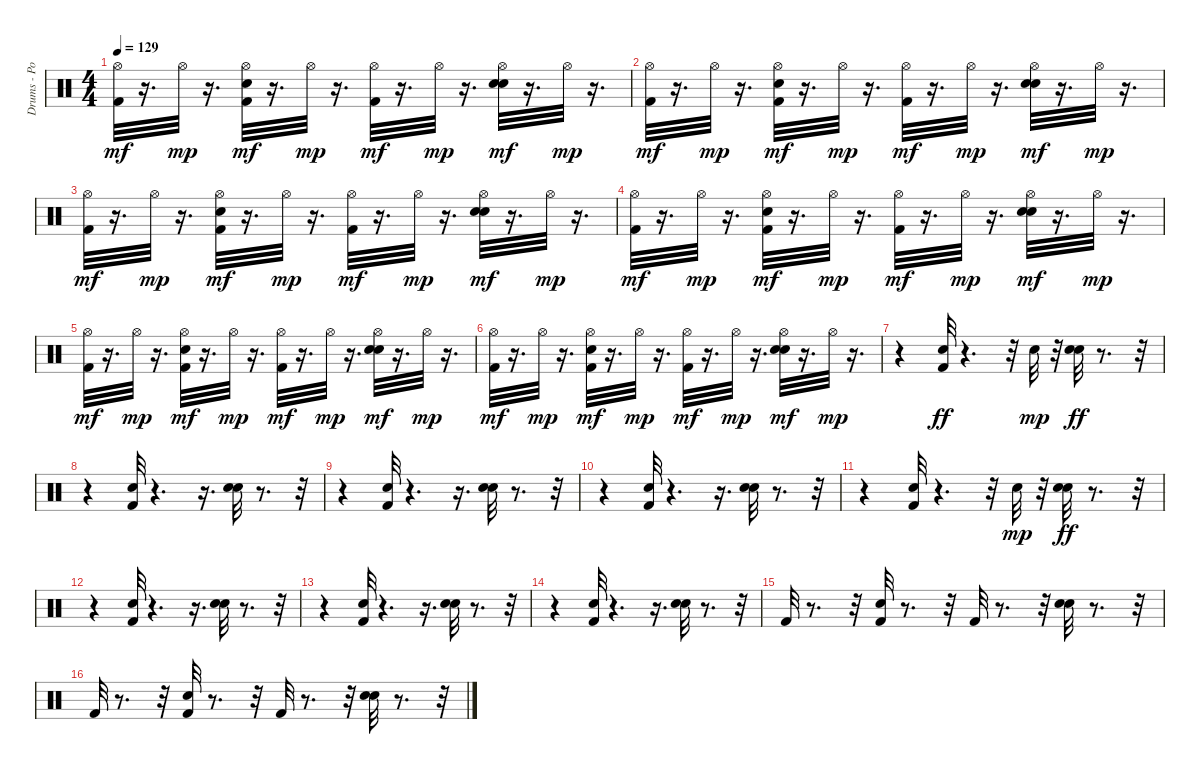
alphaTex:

\track ("Drums - Po" "Drums - Po") {instrument percussion}
\staff {score}
\articulation defaults
\ts (4 4)
\tempo 129
\clef neutral
\ks c
("Kick (hit) 2" "Hi-Hat (open)").32{dy mf} r.16{d} "Hi-Hat (open)".32{dy mp} r.16{d} ("Kick (hit) 2" "Snare (hit) 2" "Hi-Hat (open)").32{dy mf} r.16{d} "Hi-Hat (open)".32{dy mp} r.16{d} ("Kick (hit) 2" "Hi-Hat (open)").32{dy mf} r.16{d} "Hi-Hat (open)".32{dy mp} r.16{d} ("Snare (hit) 2" "Hand Clap (hit)" "Hi-Hat (open)").32{dy mf} r.16{d} "Hi-Hat (open)".32{dy mp} r.16{d} |
("Kick (hit) 2" "Hi-Hat (open)").32{dy mf} r.16{d} "Hi-Hat (open)".32{dy mp} r.16{d} ("Kick (hit) 2" "Snare (hit) 2" "Hi-Hat (open)").32{dy mf} r.16{d} "Hi-Hat (open)".32{dy mp} r.16{d} ("Kick (hit) 2" "Hi-Hat (open)").32{dy mf} r.16{d} "Hi-Hat (open)".32{dy mp} r.16{d} ("Snare (hit) 2" "Hand Clap (hit)" "Hi-Hat (open)").32{dy mf} r.16{d} "Hi-Hat (open)".32{dy mp} r.16{d} |
("Kick (hit) 2" "Hi-Hat (open)").32{dy mf} r.16{d} "Hi-Hat (open)".32{dy mp} r.16{d} ("Kick (hit) 2" "Snare (hit) 2" "Hi-Hat (open)").32{dy mf} r.16{d} "Hi-Hat (open)".32{dy mp} r.16{d} ("Kick (hit) 2" "Hi-Hat (open)").32{dy mf} r.16{d} "Hi-Hat (open)".32{dy mp} r.16{d} ("Snare (hit) 2" "Hand Clap (hit)" "Hi-Hat (open)").32{dy mf} r.16{d} "Hi-Hat (open)".32{dy mp} r.16{d} |
("Kick (hit) 2" "Hi-Hat (open)").32{dy mf} r.16{d} "Hi-Hat (open)".32{dy mp} r.16{d} ("Kick (hit) 2" "Snare (hit) 2" "Hi-Hat (open)").32{dy mf} r.16{d} "Hi-Hat (open)".32{dy mp} r.16{d} ("Kick (hit) 2" "Hi-Hat (open)").32{dy mf} r.16{d} "Hi-Hat (open)".32{dy mp} r.16{d} ("Snare (hit) 2" "Hand Clap (hit)" "Hi-Hat (open)").32{dy mf} r.16{d} "Hi-Hat (open)".32{dy mp} r.16{d} |
("Kick (hit) 2" "Hi-Hat (open)").32{dy mf} r.16{d} "Hi-Hat (open)".32{dy mp} r.16{d} ("Kick (hit) 2" "Snare (hit) 2" "Hi-Hat (open)").32{dy mf} r.16{d} "Hi-Hat (open)".32{dy mp} r.16{d} ("Kick (hit) 2" "Hi-Hat (open)").32{dy mf} r.16{d} "Hi-Hat (open)".32{dy mp} r.16{d} ("Snare (hit) 2" "Hand Clap (hit)" "Hi-Hat (open)").32{dy mf} r.16{d} "Hi-Hat (open)".32{dy mp} r.16{d} |
("Kick (hit) 2" "Hi-Hat (open)").32{dy mf} r.16{d} "Hi-Hat (open)".32{dy mp} r.16{d} ("Kick (hit) 2" "Snare (hit) 2" "Hi-Hat (open)").32{dy mf} r.16{d} "Hi-Hat (open)".32{dy mp} r.16{d} ("Kick (hit) 2" "Hi-Hat (open)").32{dy mf} r.16{d} "Hi-Hat (open)".32{dy mp} r.16{d} ("Snare (hit) 2" "Hand Clap (hit)" "Hi-Hat (open)").32{dy mf} r.16{d} "Hi-Hat (open)".32{dy mp} r.16{d} |
r.4 ("Kick (hit) 2" "Snare (hit) 2").32{dy ff} r.4{d} r.32 "Hand Clap (hit)".32{dy mp} r.32 ("Snare (hit) 2" "Hand Clap (hit)").32{dy ff} r.8{d} r.32 |
r.4 ("Kick (hit) 2" "Snare (hit) 2").32 r.4{d} r.16{d} ("Snare (hit) 2" "Hand Clap (hit)").32 r.8{d} r.32 |
r.4 ("Kick (hit) 2" "Snare (hit) 2").32 r.4{d} r.16{d} ("Snare (hit) 2" "Hand Clap (hit)").32 r.8{d} r.32 |
r.4 ("Kick (hit) 2" "Snare (hit) 2").32 r.4{d} r.16{d} ("Snare (hit) 2" "Hand Clap (hit)").32 r.8{d} r.32 |
r.4 ("Kick (hit) 2" "Snare (hit) 2").32 r.4{d} r.32 "Hand Clap (hit)".32{dy mp} r.32 ("Snare (hit) 2" "Hand Clap (hit)").32{dy ff} r.8{d} r.32 |
r.4 ("Kick (hit) 2" "Snare (hit) 2").32 r.4{d} r.16{d} ("Snare (hit) 2" "Hand Clap (hit)").32 r.8{d} r.32 |
r.4 ("Kick (hit) 2" "Snare (hit) 2").32 r.4{d} r.16{d} ("Snare (hit) 2" "Hand Clap (hit)").32 r.8{d} r.32 |
r.4 ("Kick (hit) 2" "Snare (hit) 2").32 r.4{d} r.16{d} ("Snare (hit) 2" "Hand Clap (hit)").32 r.8{d} r.32 |
"Kick (hit) 2".32 r.8{d} r.32 ("Kick (hit) 2" "Snare (hit) 2").32 r.8{d} r.32 "Kick (hit) 2".32 r.8{d} r.32 ("Snare (hit) 2" "Hand Clap (hit)").32 r.8{d} r.32 |
"Kick (hit) 2".32 r.8{d} r.32 ("Kick (hit) 2" "Snare (hit) 2").32 r.8{d} r.32 "Kick (hit) 2".32 r.8{d} r.32 ("Snare (hit) 2" "Hand Clap (hit)").32 r.8{d} r.32
